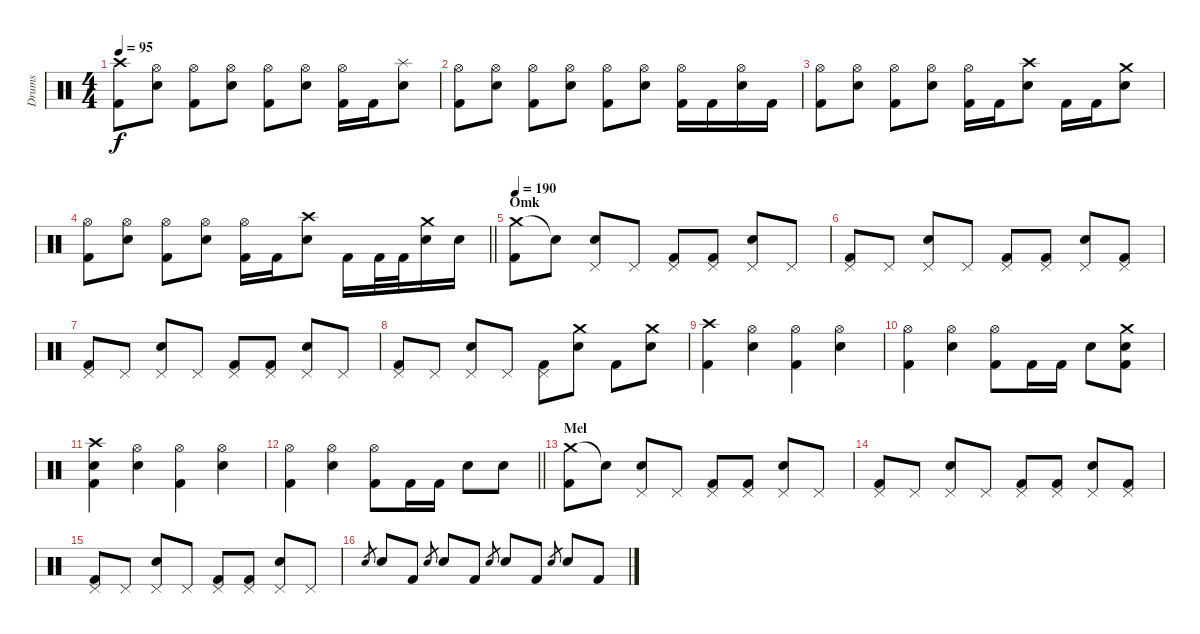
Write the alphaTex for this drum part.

\track ("Drums" "Drums") {instrument percussion}
\staff {score}
\articulation defaults
\ts (4 4)
\tempo 95
\clef neutral
\ks c
("Crash high (hit)" "Kick (hit) 2").8{dy f} ("Hi-Hat (open)" "Snare (hit) 2").8 ("Hi-Hat (open)" "Kick (hit) 2").8 ("Hi-Hat (open)" "Snare (hit) 2").8 ("Hi-Hat (open)" "Kick (hit) 2").8 ("Hi-Hat (open)" "Snare (hit) 2").8 ("Hi-Hat (open)" "Kick (hit) 2").16 "Kick (hit) 2".16 ("Splash (hit)" "Snare (hit) 2").8 |
("Hi-Hat (open)" "Kick (hit) 2").8 ("Hi-Hat (open)" "Snare (hit) 2").8 ("Hi-Hat (open)" "Kick (hit) 2").8 ("Hi-Hat (open)" "Snare (hit) 2").8 ("Hi-Hat (open)" "Kick (hit) 2").8 ("Hi-Hat (open)" "Snare (hit) 2").8 ("Hi-Hat (open)" "Kick (hit) 2").16 "Kick (hit) 2".16 ("Hi-Hat (open)" "Snare (hit) 2").16 "Kick (hit) 2".16 |
("Hi-Hat (open)" "Kick (hit) 2").8 ("Hi-Hat (open)" "Snare (hit) 2").8 ("Hi-Hat (open)" "Kick (hit) 2").8 ("Hi-Hat (open)" "Snare (hit) 2").8 ("Hi-Hat (open)" "Kick (hit) 2").16 "Kick (hit) 2".16 ("Crash high (hit)" "Snare (hit) 2").8 "Kick (hit) 2".16 "Kick (hit) 2".16 ("Crash medium (hit)" "Snare (hit) 2").8 |
\barLineRight lightlight
("Hi-Hat (open)" "Kick (hit) 2").8 ("Hi-Hat (open)" "Snare (hit) 2").8 ("Hi-Hat (open)" "Kick (hit) 2").8 ("Hi-Hat (open)" "Snare (hit) 2").8 ("Hi-Hat (open)" "Kick (hit) 2").16 "Kick (hit) 2".16 ("Crash high (hit)" "Snare (hit) 2").8 "Kick (hit) 2".16 "Kick (hit) 2".32 "Kick (hit) 2".32 ("Crash medium (hit)" "Snare (hit) 2").16 "Snare (hit) 2".16 |
\section ("" "Omk")
\tempo 190
("Crash medium (hit)" "Kick (hit) 2").8 "Snare (hit)"{t}.8 ("Pedal Hi-Hat (hit)" "Snare (hit) 2").8 "Pedal Hi-Hat (hit)".8 ("Pedal Hi-Hat (hit)" "Kick (hit) 2").8 ("Pedal Hi-Hat (hit)" "Kick (hit) 2").8 ("Pedal Hi-Hat (hit)" "Snare (hit) 2").8 "Pedal Hi-Hat (hit)".8 |
("Pedal Hi-Hat (hit)" "Kick (hit) 2").8 "Pedal Hi-Hat (hit)".8 ("Pedal Hi-Hat (hit)" "Snare (hit) 2").8 "Pedal Hi-Hat (hit)".8 ("Pedal Hi-Hat (hit)" "Kick (hit) 2").8 ("Pedal Hi-Hat (hit)" "Kick (hit) 2").8 ("Pedal Hi-Hat (hit)" "Snare (hit) 2").8 ("Pedal Hi-Hat (hit)" "Kick (hit) 2").8 |
("Pedal Hi-Hat (hit)" "Kick (hit) 2").8 "Pedal Hi-Hat (hit)".8 ("Pedal Hi-Hat (hit)" "Snare (hit) 2").8 "Pedal Hi-Hat (hit)".8 ("Pedal Hi-Hat (hit)" "Kick (hit) 2").8 ("Pedal Hi-Hat (hit)" "Kick (hit) 2").8 ("Pedal Hi-Hat (hit)" "Snare (hit) 2").8 "Pedal Hi-Hat (hit)".8 |
("Pedal Hi-Hat (hit)" "Kick (hit) 2").8 "Pedal Hi-Hat (hit)".8 ("Pedal Hi-Hat (hit)" "Snare (hit) 2").8 "Pedal Hi-Hat (hit)".8 ("Pedal Hi-Hat (hit)" "Kick (hit) 2").8 ("Crash medium (hit)" "Snare (hit) 2").8 "Kick (hit) 2".8 ("Crash medium (hit)" "Snare (hit) 2").8 |
("Crash high (hit)" "Kick (hit) 2").4 ("Hi-Hat (open)" "Snare (hit) 2").4 ("Hi-Hat (open)" "Kick (hit) 2").4 ("Hi-Hat (open)" "Snare (hit) 2").4 |
("Hi-Hat (open)" "Kick (hit) 2").4 ("Hi-Hat (open)" "Snare (hit) 2").4 ("Hi-Hat (open)" "Kick (hit) 2").8 "Kick (hit) 2".16 "Kick (hit) 2".16 "Snare (hit) 2".8 ("Crash medium (hit)" "Snare (hit) 2" "Kick (hit) 2").8 |
("Crash high (hit)" "Snare (hit) 2" "Kick (hit) 2").4 ("Hi-Hat (open)" "Snare (hit) 2").4 ("Hi-Hat (open)" "Kick (hit) 2").4 ("Hi-Hat (open)" "Snare (hit) 2").4 |
\barLineRight lightlight
("Hi-Hat (open)" "Kick (hit) 2").4 ("Hi-Hat (open)" "Snare (hit) 2").4 ("Hi-Hat (open)" "Kick (hit) 2").8 "Kick (hit) 2".16 "Kick (hit) 2".16 "Snare (hit) 2".8 "Snare (hit) 2".8 |
\section ("" "Mel")
("Crash medium (hit)" "Kick (hit) 2").8 "Snare (hit)"{t}.8 ("Pedal Hi-Hat (hit)" "Snare (hit) 2").8 "Pedal Hi-Hat (hit)".8 ("Pedal Hi-Hat (hit)" "Kick (hit) 2").8 ("Pedal Hi-Hat (hit)" "Kick (hit) 2").8 ("Pedal Hi-Hat (hit)" "Snare (hit) 2").8 "Pedal Hi-Hat (hit)".8 |
("Pedal Hi-Hat (hit)" "Kick (hit) 2").8 "Pedal Hi-Hat (hit)".8 ("Pedal Hi-Hat (hit)" "Snare (hit) 2").8 "Pedal Hi-Hat (hit)".8 ("Pedal Hi-Hat (hit)" "Kick (hit) 2").8 ("Pedal Hi-Hat (hit)" "Kick (hit) 2").8 ("Pedal Hi-Hat (hit)" "Snare (hit) 2").8 ("Pedal Hi-Hat (hit)" "Kick (hit) 2").8 |
("Pedal Hi-Hat (hit)" "Kick (hit) 2").8 "Pedal Hi-Hat (hit)".8 ("Pedal Hi-Hat (hit)" "Snare (hit) 2").8 "Pedal Hi-Hat (hit)".8 ("Pedal Hi-Hat (hit)" "Kick (hit) 2").8 ("Pedal Hi-Hat (hit)" "Kick (hit) 2").8 ("Pedal Hi-Hat (hit)" "Snare (hit) 2").8 "Pedal Hi-Hat (hit)".8 |
"Snare (hit) 2".8{gr} "Snare (hit) 2".8 "Kick (hit) 2".8 "Snare (hit) 2".8{gr} "Snare (hit) 2".8 "Kick (hit) 2".8 "Snare (hit) 2".8{gr} "Snare (hit) 2".8 "Kick (hit) 2".8 "Snare (hit) 2".8{gr} "Snare (hit) 2".8 "Kick (hit) 2".8
